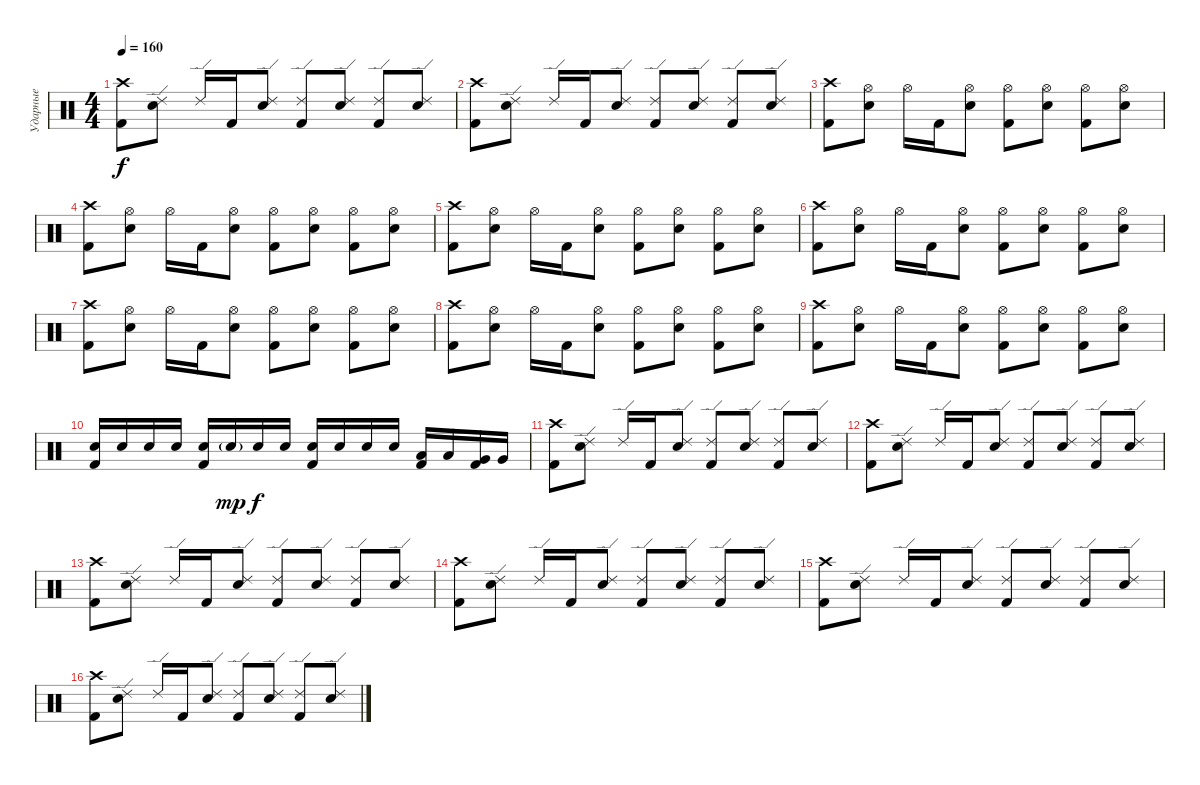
\track ("Ударные" "Ударные") {instrument percussion}
\staff {score}
\articulation defaults
\ts (4 4)
\tempo 160
\clef neutral
\ks c
("Kick (hit) 2" "Crash high (hit)").8{dy f} ("Electric Snare (hit)" "Ride (edge) 2").8 "Ride (edge) 2".16 "Kick (hit) 2".16 ("Electric Snare (hit)" "Ride (edge) 2").8 ("Kick (hit) 2" "Ride (edge) 2").8 ("Electric Snare (hit)" "Ride (edge) 2").8 ("Kick (hit) 2" "Ride (edge) 2").8 ("Electric Snare (hit)" "Ride (edge) 2").8 |
("Kick (hit) 2" "Crash high (hit)").8 ("Electric Snare (hit)" "Ride (edge) 2").8 "Ride (edge) 2".16 "Kick (hit) 2".16 ("Electric Snare (hit)" "Ride (edge) 2").8 ("Kick (hit) 2" "Ride (edge) 2").8 ("Electric Snare (hit)" "Ride (edge) 2").8 ("Kick (hit) 2" "Ride (edge) 2").8 ("Electric Snare (hit)" "Ride (edge) 2").8 |
("Kick (hit) 2" "Crash high (hit)").8 ("Electric Snare (hit)" "Hi-Hat (open)").8 "Hi-Hat (open)".16 "Kick (hit) 2".16 ("Electric Snare (hit)" "Hi-Hat (open)").8 ("Kick (hit) 2" "Hi-Hat (open)").8 ("Electric Snare (hit)" "Hi-Hat (open)").8 ("Kick (hit) 2" "Hi-Hat (open)").8 ("Electric Snare (hit)" "Hi-Hat (open)").8 |
("Kick (hit) 2" "Crash high (hit)").8 ("Electric Snare (hit)" "Hi-Hat (open)").8 "Hi-Hat (open)".16 "Kick (hit) 2".16 ("Electric Snare (hit)" "Hi-Hat (open)").8 ("Kick (hit) 2" "Hi-Hat (open)").8 ("Electric Snare (hit)" "Hi-Hat (open)").8 ("Kick (hit) 2" "Hi-Hat (open)").8 ("Electric Snare (hit)" "Hi-Hat (open)").8 |
("Kick (hit) 2" "Crash high (hit)").8 ("Electric Snare (hit)" "Hi-Hat (open)").8 "Hi-Hat (open)".16 "Kick (hit) 2".16 ("Electric Snare (hit)" "Hi-Hat (open)").8 ("Kick (hit) 2" "Hi-Hat (open)").8 ("Electric Snare (hit)" "Hi-Hat (open)").8 ("Kick (hit) 2" "Hi-Hat (open)").8 ("Electric Snare (hit)" "Hi-Hat (open)").8 |
("Kick (hit) 2" "Crash high (hit)").8 ("Electric Snare (hit)" "Hi-Hat (open)").8 "Hi-Hat (open)".16 "Kick (hit) 2".16 ("Electric Snare (hit)" "Hi-Hat (open)").8 ("Kick (hit) 2" "Hi-Hat (open)").8 ("Electric Snare (hit)" "Hi-Hat (open)").8 ("Kick (hit) 2" "Hi-Hat (open)").8 ("Electric Snare (hit)" "Hi-Hat (open)").8 |
("Kick (hit) 2" "Crash high (hit)").8 ("Electric Snare (hit)" "Hi-Hat (open)").8 "Hi-Hat (open)".16 "Kick (hit) 2".16 ("Electric Snare (hit)" "Hi-Hat (open)").8 ("Kick (hit) 2" "Hi-Hat (open)").8 ("Electric Snare (hit)" "Hi-Hat (open)").8 ("Kick (hit) 2" "Hi-Hat (open)").8 ("Electric Snare (hit)" "Hi-Hat (open)").8 |
("Kick (hit) 2" "Crash high (hit)").8 ("Electric Snare (hit)" "Hi-Hat (open)").8 "Hi-Hat (open)".16 "Kick (hit) 2".16 ("Electric Snare (hit)" "Hi-Hat (open)").8 ("Kick (hit) 2" "Hi-Hat (open)").8 ("Electric Snare (hit)" "Hi-Hat (open)").8 ("Kick (hit) 2" "Hi-Hat (open)").8 ("Electric Snare (hit)" "Hi-Hat (open)").8 |
("Kick (hit) 2" "Crash high (hit)").8 ("Electric Snare (hit)" "Hi-Hat (open)").8 "Hi-Hat (open)".16 "Kick (hit) 2".16 ("Electric Snare (hit)" "Hi-Hat (open)").8 ("Kick (hit) 2" "Hi-Hat (open)").8 ("Electric Snare (hit)" "Hi-Hat (open)").8 ("Kick (hit) 2" "Hi-Hat (open)").8 ("Electric Snare (hit)" "Hi-Hat (open)").8 |
("Electric Snare (hit)" "Kick (hit) 2").16 "Electric Snare (hit)".16 "Electric Snare (hit)".16 "Electric Snare (hit)".16 ("Electric Snare (hit)" "Kick (hit) 2").16 "Electric Snare (hit)"{g}.16{dy mp} "Electric Snare (hit)".16{dy f} "Electric Snare (hit)".16 ("Electric Snare (hit)" "Kick (hit) 2").16 "Electric Snare (hit)".16 "Electric Snare (hit)".16 "Electric Snare (hit)".16 ("Low Tom (hit)" "Kick (hit) 2").16 "Low Tom (hit)".16 ("Very Low Tom (hit)" "Kick (hit) 2").16 "Very Low Tom (hit)".16 |
("Kick (hit) 2" "Crash high (hit)").8 ("Electric Snare (hit)" "Ride (edge) 2").8 "Ride (edge) 2".16 "Kick (hit) 2".16 ("Electric Snare (hit)" "Ride (edge) 2").8 ("Kick (hit) 2" "Ride (edge) 2").8 ("Electric Snare (hit)" "Ride (edge) 2").8 ("Kick (hit) 2" "Ride (edge) 2").8 ("Electric Snare (hit)" "Ride (edge) 2").8 |
("Kick (hit) 2" "Crash high (hit)").8 ("Electric Snare (hit)" "Ride (edge) 2").8 "Ride (edge) 2".16 "Kick (hit) 2".16 ("Electric Snare (hit)" "Ride (edge) 2").8 ("Kick (hit) 2" "Ride (edge) 2").8 ("Electric Snare (hit)" "Ride (edge) 2").8 ("Kick (hit) 2" "Ride (edge) 2").8 ("Electric Snare (hit)" "Ride (edge) 2").8 |
("Kick (hit) 2" "Crash high (hit)").8 ("Electric Snare (hit)" "Ride (edge) 2").8 "Ride (edge) 2".16 "Kick (hit) 2".16 ("Electric Snare (hit)" "Ride (edge) 2").8 ("Kick (hit) 2" "Ride (edge) 2").8 ("Electric Snare (hit)" "Ride (edge) 2").8 ("Kick (hit) 2" "Ride (edge) 2").8 ("Electric Snare (hit)" "Ride (edge) 2").8 |
("Kick (hit) 2" "Crash high (hit)").8 ("Electric Snare (hit)" "Ride (edge) 2").8 "Ride (edge) 2".16 "Kick (hit) 2".16 ("Electric Snare (hit)" "Ride (edge) 2").8 ("Kick (hit) 2" "Ride (edge) 2").8 ("Electric Snare (hit)" "Ride (edge) 2").8 ("Kick (hit) 2" "Ride (edge) 2").8 ("Electric Snare (hit)" "Ride (edge) 2").8 |
("Kick (hit) 2" "Crash high (hit)").8 ("Electric Snare (hit)" "Ride (edge) 2").8 "Ride (edge) 2".16 "Kick (hit) 2".16 ("Electric Snare (hit)" "Ride (edge) 2").8 ("Kick (hit) 2" "Ride (edge) 2").8 ("Electric Snare (hit)" "Ride (edge) 2").8 ("Kick (hit) 2" "Ride (edge) 2").8 ("Electric Snare (hit)" "Ride (edge) 2").8 |
("Kick (hit) 2" "Crash high (hit)").8 ("Electric Snare (hit)" "Ride (edge) 2").8 "Ride (edge) 2".16 "Kick (hit) 2".16 ("Electric Snare (hit)" "Ride (edge) 2").8 ("Kick (hit) 2" "Ride (edge) 2").8 ("Electric Snare (hit)" "Ride (edge) 2").8 ("Kick (hit) 2" "Ride (edge) 2").8 ("Electric Snare (hit)" "Ride (edge) 2").8
